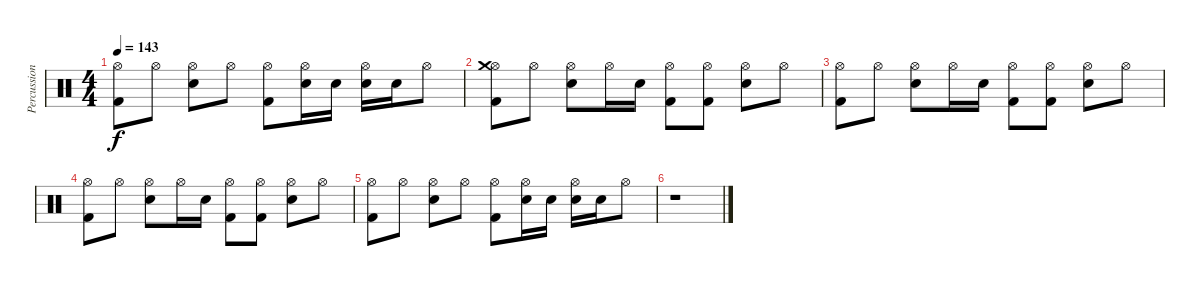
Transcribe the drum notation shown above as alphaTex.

\track ("Percussion" "Percussion") {instrument percussion}
\staff {score}
\articulation defaults
\ts (4 4)
\tempo 143
\clef neutral
\ks c
("Hi-Hat (open)" "Kick (hit) 2").8{dy f} "Hi-Hat (open)".8 ("Hi-Hat (open)" "Electric Snare (hit)").8 "Hi-Hat (open)".8 ("Hi-Hat (open)" "Kick (hit) 2").8 ("Hi-Hat (open)" "Electric Snare (hit)").16 "Electric Snare (hit)".16 ("Hi-Hat (open)" "Electric Snare (hit)").16 "Electric Snare (hit)".16 "Hi-Hat (open)".8 |
("Hi-Hat (open)" "Crash medium (hit)" "Kick (hit) 2").8 "Hi-Hat (open)".8 ("Hi-Hat (open)" "Electric Snare (hit)").8 "Hi-Hat (open)".16 "Electric Snare (hit)".16 ("Hi-Hat (open)" "Kick (hit) 2").8 ("Hi-Hat (open)" "Kick (hit) 2").8 ("Hi-Hat (open)" "Electric Snare (hit)").8 "Hi-Hat (open)".8 |
("Hi-Hat (open)" "Kick (hit) 2").8 "Hi-Hat (open)".8 ("Hi-Hat (open)" "Electric Snare (hit)").8 "Hi-Hat (open)".16 "Electric Snare (hit)".16 ("Hi-Hat (open)" "Kick (hit) 2").8 ("Hi-Hat (open)" "Kick (hit) 2").8 ("Hi-Hat (open)" "Electric Snare (hit)").8 "Hi-Hat (open)".8 |
("Hi-Hat (open)" "Kick (hit) 2").8 "Hi-Hat (open)".8 ("Hi-Hat (open)" "Electric Snare (hit)").8 "Hi-Hat (open)".16 "Electric Snare (hit)".16 ("Hi-Hat (open)" "Kick (hit) 2").8 ("Hi-Hat (open)" "Kick (hit) 2").8 ("Hi-Hat (open)" "Electric Snare (hit)").8 "Hi-Hat (open)".8 |
("Hi-Hat (open)" "Kick (hit) 2").8 "Hi-Hat (open)".8 ("Hi-Hat (open)" "Electric Snare (hit)").8 "Hi-Hat (open)".8 ("Hi-Hat (open)" "Kick (hit) 2").8 ("Hi-Hat (open)" "Electric Snare (hit)").16 "Electric Snare (hit)".16 ("Hi-Hat (open)" "Electric Snare (hit)").16 "Electric Snare (hit)".16 "Hi-Hat (open)".8 |
r.1
